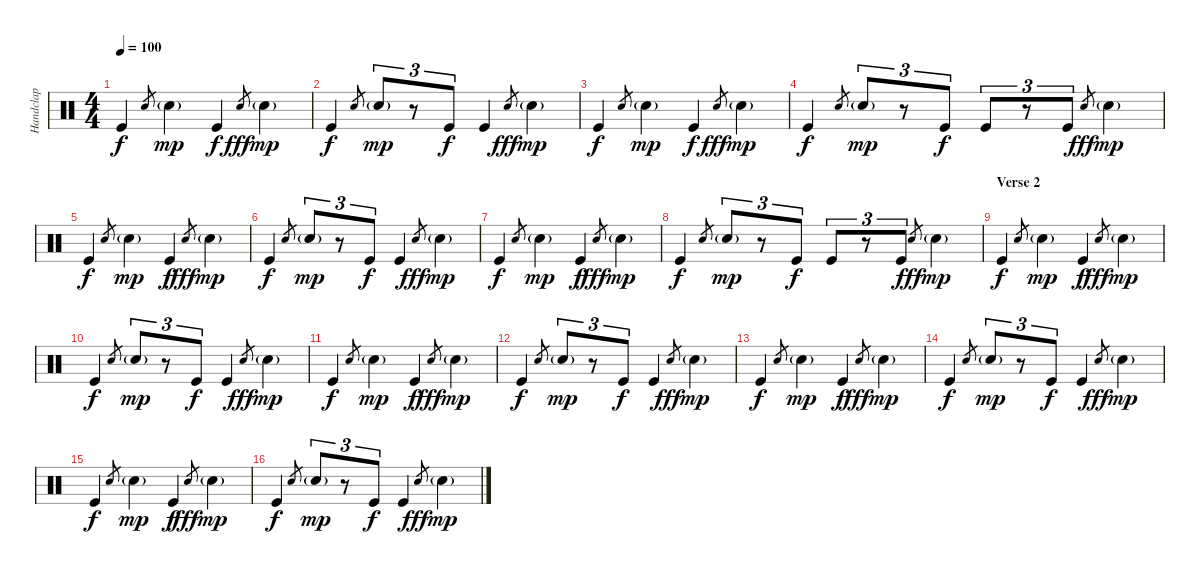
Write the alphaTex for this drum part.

\track ("Handclap" "Handclap") {instrument percussion}
\staff {score}
\articulation defaults
\ts (4 4)
\tempo 100
\clef neutral
\ks c "Kick (hit)".4{dy f} "Hand Clap (hit)".8{gr} "Hand Clap (hit)"{g}.4{dy mp} "Kick (hit)".4{dy f} "Hand Clap (hit)".8{gr dy fff} "Hand Clap (hit)"{g}.4{dy mp}
|
"Kick (hit)".4{dy f} "Hand Clap (hit)".8{gr} "Hand Clap (hit)"{g}.8{tu (3 2) dy mp} r.8{tu (3 2)} "Kick (hit)".8{tu (3 2) dy f} "Kick (hit)".4 "Hand Clap (hit)".8{gr dy fff} "Hand Clap (hit)"{g}.4{dy mp} |
"Kick (hit)".4{dy f} "Hand Clap (hit)".8{gr} "Hand Clap (hit)"{g}.4{dy mp} "Kick (hit)".4{dy f} "Hand Clap (hit)".8{gr dy fff} "Hand Clap (hit)"{g}.4{dy mp} |
"Kick (hit)".4{dy f} "Hand Clap (hit)".8{gr} "Hand Clap (hit)"{g}.8{tu (3 2) dy mp} r.8{tu (3 2)} "Kick (hit)".8{tu (3 2) dy f} "Kick (hit)".8{tu (3 2)} r.8{tu (3 2)} "Kick (hit)".8{tu (3 2)} "Hand Clap (hit)".8{gr dy fff} "Hand Clap (hit)"{g}.4{dy mp} |
"Kick (hit)".4{dy f} "Hand Clap (hit)".8{gr} "Hand Clap (hit)"{g}.4{dy mp} "Kick (hit)".4{dy f} "Hand Clap (hit)".8{gr dy fff} "Hand Clap (hit)"{g}.4{dy mp} |
"Kick (hit)".4{dy f} "Hand Clap (hit)".8{gr} "Hand Clap (hit)"{g}.8{tu (3 2) dy mp} r.8{tu (3 2)} "Kick (hit)".8{tu (3 2) dy f} "Kick (hit)".4 "Hand Clap (hit)".8{gr dy fff} "Hand Clap (hit)"{g}.4{dy mp} |
"Kick (hit)".4{dy f} "Hand Clap (hit)".8{gr} "Hand Clap (hit)"{g}.4{dy mp} "Kick (hit)".4{dy f} "Hand Clap (hit)".8{gr dy fff} "Hand Clap (hit)"{g}.4{dy mp} |
"Kick (hit)".4{dy f} "Hand Clap (hit)".8{gr} "Hand Clap (hit)"{g}.8{tu (3 2) dy mp} r.8{tu (3 2)} "Kick (hit)".8{tu (3 2) dy f} "Kick (hit)".8{tu (3 2)} r.8{tu (3 2)} "Kick (hit)".8{tu (3 2)} "Hand Clap (hit)".8{gr dy fff} "Hand Clap (hit)"{g}.4{dy mp} |
\section ("" "Verse 2")
"Kick (hit)".4{dy f} "Hand Clap (hit)".8{gr} "Hand Clap (hit)"{g}.4{dy mp} "Kick (hit)".4{dy f} "Hand Clap (hit)".8{gr dy fff} "Hand Clap (hit)"{g}.4{dy mp} |
"Kick (hit)".4{dy f} "Hand Clap (hit)".8{gr} "Hand Clap (hit)"{g}.8{tu (3 2) dy mp} r.8{tu (3 2)} "Kick (hit)".8{tu (3 2) dy f} "Kick (hit)".4 "Hand Clap (hit)".8{gr dy fff} "Hand Clap (hit)"{g}.4{dy mp} |
"Kick (hit)".4{dy f} "Hand Clap (hit)".8{gr} "Hand Clap (hit)"{g}.4{dy mp} "Kick (hit)".4{dy f} "Hand Clap (hit)".8{gr dy fff} "Hand Clap (hit)"{g}.4{dy mp} |
"Kick (hit)".4{dy f} "Hand Clap (hit)".8{gr} "Hand Clap (hit)"{g}.8{tu (3 2) dy mp} r.8{tu (3 2)} "Kick (hit)".8{tu (3 2) dy f} "Kick (hit)".4 "Hand Clap (hit)".8{gr dy fff} "Hand Clap (hit)"{g}.4{dy mp} |
"Kick (hit)".4{dy f} "Hand Clap (hit)".8{gr} "Hand Clap (hit)"{g}.4{dy mp} "Kick (hit)".4{dy f} "Hand Clap (hit)".8{gr dy fff} "Hand Clap (hit)"{g}.4{dy mp} |
"Kick (hit)".4{dy f} "Hand Clap (hit)".8{gr} "Hand Clap (hit)"{g}.8{tu (3 2) dy mp} r.8{tu (3 2)} "Kick (hit)".8{tu (3 2) dy f} "Kick (hit)".4 "Hand Clap (hit)".8{gr dy fff} "Hand Clap (hit)"{g}.4{dy mp} |
"Kick (hit)".4{dy f} "Hand Clap (hit)".8{gr} "Hand Clap (hit)"{g}.4{dy mp} "Kick (hit)".4{dy f} "Hand Clap (hit)".8{gr dy fff} "Hand Clap (hit)"{g}.4{dy mp} |
"Kick (hit)".4{dy f} "Hand Clap (hit)".8{gr} "Hand Clap (hit)"{g}.8{tu (3 2) dy mp} r.8{tu (3 2)} "Kick (hit)".8{tu (3 2) dy f} "Kick (hit)".4 "Hand Clap (hit)".8{gr dy fff} "Hand Clap (hit)"{g}.4{dy mp}
